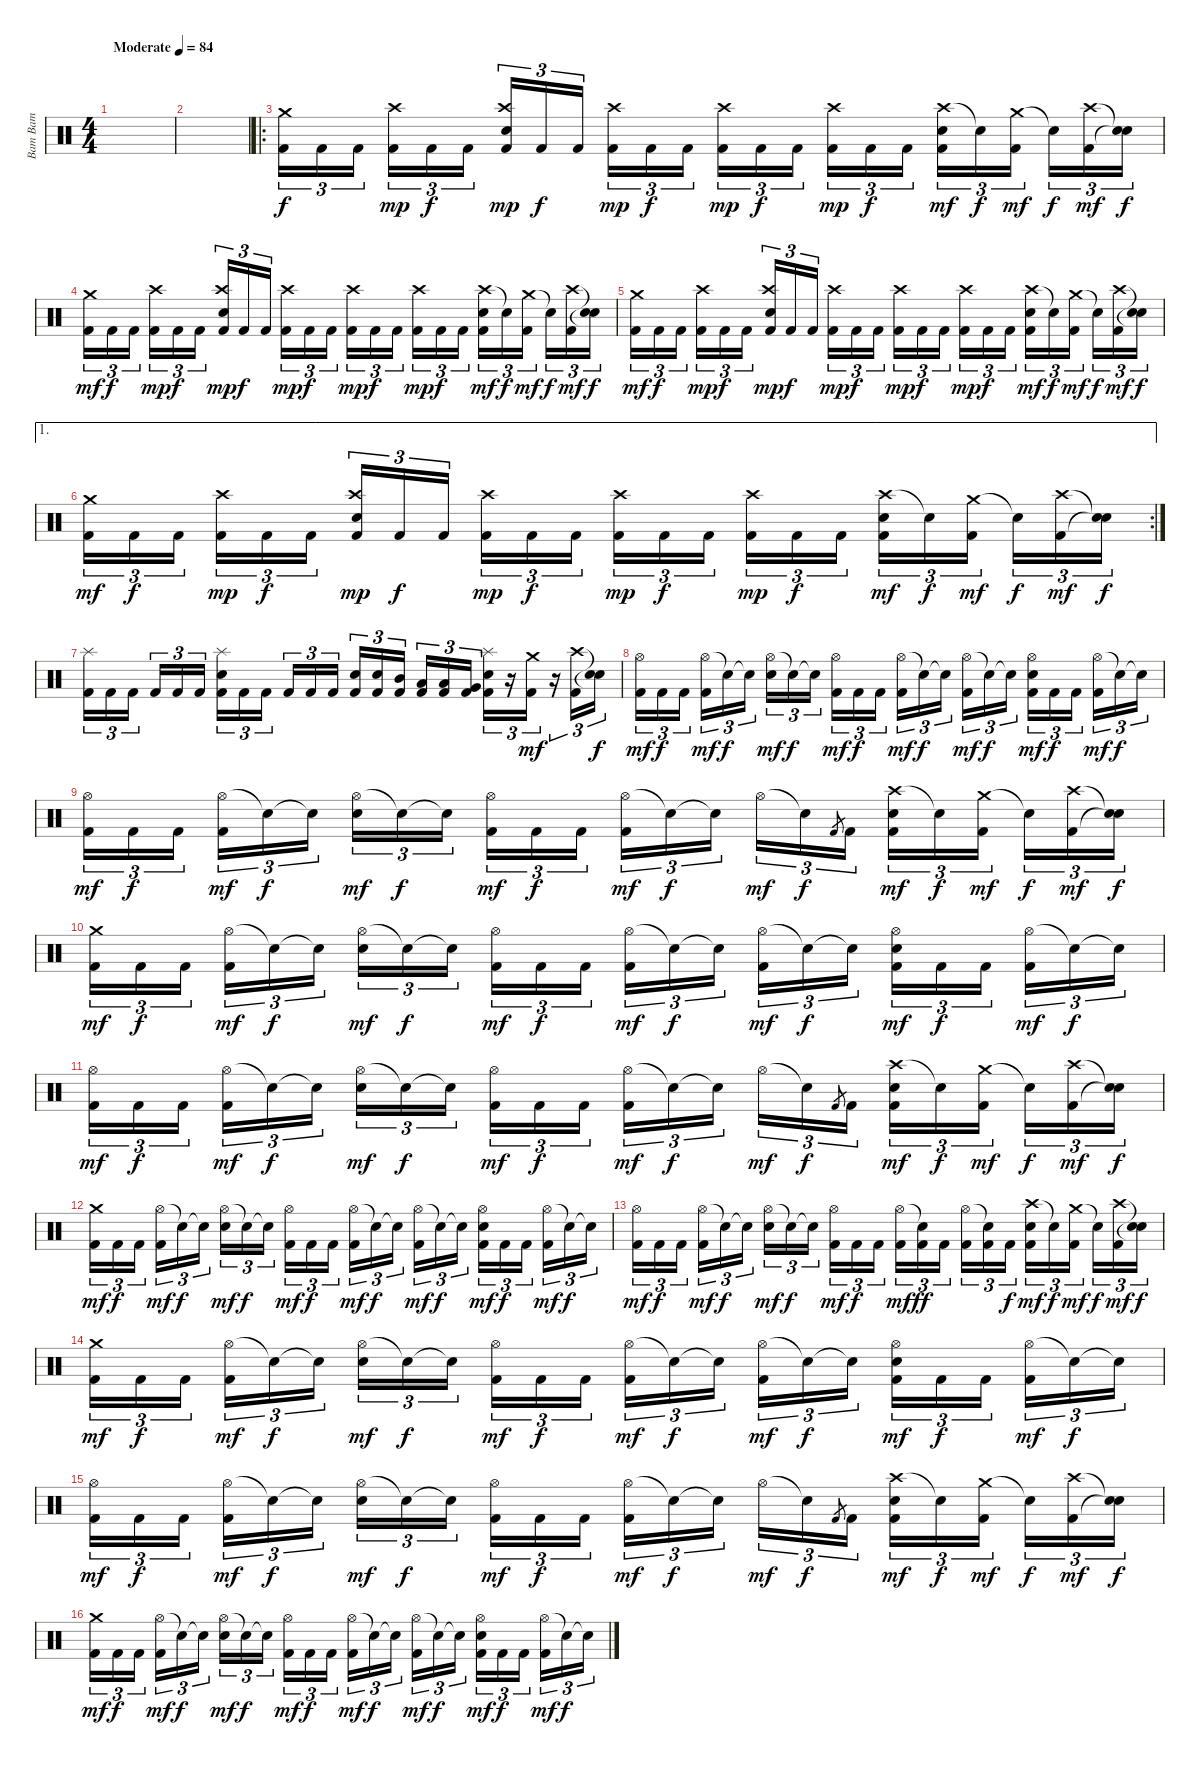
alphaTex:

\track ("Bam Bam" "Bam Bam") {instrument percussion}
\staff {score}
\articulation defaults
\ts (4 4)
\tempo (84 "Moderate")
\clef neutral
\ks c
|
|
\ro
("Crash medium (hit)" "Kick (hit) 2").16{tu (3 2)} "Kick (hit) 2".16{tu (3 2) dy f} "Kick (hit) 2".16{tu (3 2) beam splitsecondary} ("Crash high (hit)" "Kick (hit) 2").16{tu (3 2) dy mp} "Kick (hit) 2".16{tu (3 2) dy f} "Kick (hit) 2".16{tu (3 2)} ("Crash high (hit)" "Electric Snare (hit)" "Kick (hit) 2").16{tu (3 2) dy mp} "Kick (hit) 2".16{tu (3 2) dy f} "Kick (hit) 2".16{tu (3 2) beam splitsecondary} ("Crash high (hit)" "Kick (hit) 2").16{tu (3 2) dy mp} "Kick (hit) 2".16{tu (3 2) dy f} "Kick (hit) 2".16{tu (3 2)} ("Crash high (hit)" "Kick (hit) 2").16{tu (3 2) dy mp} "Kick (hit) 2".16{tu (3 2) dy f} "Kick (hit) 2".16{tu (3 2) beam splitsecondary} ("Crash high (hit)" "Kick (hit) 2").16{tu (3 2) dy mp} "Kick (hit) 2".16{tu (3 2) dy f} "Kick (hit) 2".16{tu (3 2)} ("Crash high (hit)" "Electric Snare (hit)" "Kick (hit) 2").16{tu (3 2) dy mf} "Snare (hit)"{t}.16{tu (3 2) dy f} ("Crash medium (hit)" "Kick (hit) 2").16{tu (3 2) dy mf beam splitsecondary} "Snare (hit)"{t}.16{tu (3 2) dy f} ("Crash high (hit)" "Kick (hit) 2").16{tu (3 2) dy mf} ("Snare (hit)"{t} "Snare (hit)"{t}).16{tu (3 2) dy f} |
("Crash medium (hit)" "Kick (hit) 2").16{tu (3 2) dy mf} "Kick (hit) 2".16{tu (3 2) dy f} "Kick (hit) 2".16{tu (3 2) beam splitsecondary} ("Crash high (hit)" "Kick (hit) 2").16{tu (3 2) dy mp} "Kick (hit) 2".16{tu (3 2) dy f} "Kick (hit) 2".16{tu (3 2)} ("Crash high (hit)" "Electric Snare (hit)" "Kick (hit) 2").16{tu (3 2) dy mp} "Kick (hit) 2".16{tu (3 2) dy f} "Kick (hit) 2".16{tu (3 2) beam splitsecondary} ("Crash high (hit)" "Kick (hit) 2").16{tu (3 2) dy mp} "Kick (hit) 2".16{tu (3 2) dy f} "Kick (hit) 2".16{tu (3 2)} ("Crash high (hit)" "Kick (hit) 2").16{tu (3 2) dy mp} "Kick (hit) 2".16{tu (3 2) dy f} "Kick (hit) 2".16{tu (3 2) beam splitsecondary} ("Crash high (hit)" "Kick (hit) 2").16{tu (3 2) dy mp} "Kick (hit) 2".16{tu (3 2) dy f} "Kick (hit) 2".16{tu (3 2)} ("Crash high (hit)" "Electric Snare (hit)" "Kick (hit) 2").16{tu (3 2) dy mf} "Snare (hit)"{t}.16{tu (3 2) dy f} ("Crash medium (hit)" "Kick (hit) 2").16{tu (3 2) dy mf beam splitsecondary} "Snare (hit)"{t}.16{tu (3 2) dy f} ("Crash high (hit)" "Kick (hit) 2").16{tu (3 2) dy mf} ("Snare (hit)"{t} "Snare (hit)"{t}).16{tu (3 2) dy f} |
("Crash medium (hit)" "Kick (hit) 2").16{tu (3 2) dy mf} "Kick (hit) 2".16{tu (3 2) dy f} "Kick (hit) 2".16{tu (3 2) beam splitsecondary} ("Crash high (hit)" "Kick (hit) 2").16{tu (3 2) dy mp} "Kick (hit) 2".16{tu (3 2) dy f} "Kick (hit) 2".16{tu (3 2)} ("Crash high (hit)" "Electric Snare (hit)" "Kick (hit) 2").16{tu (3 2) dy mp} "Kick (hit) 2".16{tu (3 2) dy f} "Kick (hit) 2".16{tu (3 2) beam splitsecondary} ("Crash high (hit)" "Kick (hit) 2").16{tu (3 2) dy mp} "Kick (hit) 2".16{tu (3 2) dy f} "Kick (hit) 2".16{tu (3 2)} ("Crash high (hit)" "Kick (hit) 2").16{tu (3 2) dy mp} "Kick (hit) 2".16{tu (3 2) dy f} "Kick (hit) 2".16{tu (3 2) beam splitsecondary} ("Crash high (hit)" "Kick (hit) 2").16{tu (3 2) dy mp} "Kick (hit) 2".16{tu (3 2) dy f} "Kick (hit) 2".16{tu (3 2)} ("Crash high (hit)" "Electric Snare (hit)" "Kick (hit) 2").16{tu (3 2) dy mf} "Snare (hit)"{t}.16{tu (3 2) dy f} ("Crash medium (hit)" "Kick (hit) 2").16{tu (3 2) dy mf beam splitsecondary} "Snare (hit)"{t}.16{tu (3 2) dy f} ("Crash high (hit)" "Kick (hit) 2").16{tu (3 2) dy mf} ("Snare (hit)"{t} "Snare (hit)"{t}).16{tu (3 2) dy f} |
\ae 1
\rc 2
("Crash medium (hit)" "Kick (hit) 2").16{tu (3 2) dy mf} "Kick (hit) 2".16{tu (3 2) dy f} "Kick (hit) 2".16{tu (3 2) beam splitsecondary} ("Crash high (hit)" "Kick (hit) 2").16{tu (3 2) dy mp} "Kick (hit) 2".16{tu (3 2) dy f} "Kick (hit) 2".16{tu (3 2)} ("Crash high (hit)" "Electric Snare (hit)" "Kick (hit) 2").16{tu (3 2) dy mp} "Kick (hit) 2".16{tu (3 2) dy f} "Kick (hit) 2".16{tu (3 2) beam splitsecondary} ("Crash high (hit)" "Kick (hit) 2").16{tu (3 2) dy mp} "Kick (hit) 2".16{tu (3 2) dy f} "Kick (hit) 2".16{tu (3 2)} ("Crash high (hit)" "Kick (hit) 2").16{tu (3 2) dy mp} "Kick (hit) 2".16{tu (3 2) dy f} "Kick (hit) 2".16{tu (3 2) beam splitsecondary} ("Crash high (hit)" "Kick (hit) 2").16{tu (3 2) dy mp} "Kick (hit) 2".16{tu (3 2) dy f} "Kick (hit) 2".16{tu (3 2)} ("Crash high (hit)" "Electric Snare (hit)" "Kick (hit) 2").16{tu (3 2) dy mf} "Snare (hit)"{t}.16{tu (3 2) dy f} ("Crash medium (hit)" "Kick (hit) 2").16{tu (3 2) dy mf beam splitsecondary} "Snare (hit)"{t}.16{tu (3 2) dy f} ("Crash high (hit)" "Kick (hit) 2").16{tu (3 2) dy mf} ("Snare (hit)"{t} "Snare (hit)"{t}).16{tu (3 2) dy f} |
("Splash (hit)" "Kick (hit) 2").16{tu (3 2)} "Kick (hit) 2".16{tu (3 2)} "Kick (hit) 2".16{tu (3 2) beam splitsecondary} "Kick (hit) 2".16{tu (3 2)} "Kick (hit) 2".16{tu (3 2)} "Kick (hit) 2".16{tu (3 2)} ("Splash (hit)" "Electric Snare (hit)" "Kick (hit) 2").16{tu (3 2)} "Kick (hit) 2".16{tu (3 2)} "Kick (hit) 2".16{tu (3 2) beam splitsecondary} "Kick (hit) 2".16{tu (3 2)} "Kick (hit) 2".16{tu (3 2)} "Kick (hit) 2".16{tu (3 2)} ("Electric Snare (hit)" "Kick (hit) 2").16{tu (3 2)} ("Electric Snare (hit)" "Kick (hit) 2").16{tu (3 2)} ("Mid Tom (hit)" "Kick (hit) 2").16{tu (3 2) beam splitsecondary} ("Low Tom (hit)" "Kick (hit) 2").16{tu (3 2)} ("Low Tom (hit)" "Kick (hit) 2").16{tu (3 2)} ("Very Low Tom (hit)" "Kick (hit) 2").16{tu (3 2)} ("Splash (hit)" "Electric Snare (hit)" "Kick (hit) 2").16{tu (3 2)} r.16{tu (3 2)} ("Crash medium (hit)" "Kick (hit) 2").16{tu (3 2) dy mf} r.16{tu (3 2)} ("Crash high (hit)" "Kick (hit) 2").16{tu (3 2)} ("Snare (hit)"{t} "Snare (hit)"{t}).16{tu (3 2) dy f} |
("Hi-Hat (open)" "Kick (hit) 2").16{tu (3 2) dy mf} "Kick (hit) 2".16{tu (3 2) dy f} "Kick (hit) 2".16{tu (3 2) beam splitsecondary} ("Hi-Hat (open)" "Kick (hit) 2").16{tu (3 2) dy mf} "Snare (hit)"{t}.16{tu (3 2) dy f} "Snare (hit)"{t}.16{tu (3 2)} ("Hi-Hat (open)" "Electric Snare (hit)").16{tu (3 2) dy mf} "Snare (hit)"{t}.16{tu (3 2) dy f} "Snare (hit)"{t}.16{tu (3 2) beam splitsecondary} ("Hi-Hat (open)" "Kick (hit) 2").16{tu (3 2) dy mf} "Kick (hit) 2".16{tu (3 2) dy f} "Kick (hit) 2".16{tu (3 2)} ("Hi-Hat (open)" "Kick (hit) 2").16{tu (3 2) dy mf} "Snare (hit)"{t}.16{tu (3 2) dy f} "Snare (hit)"{t}.16{tu (3 2) beam splitsecondary} ("Hi-Hat (open)" "Kick (hit) 2").16{tu (3 2) dy mf} "Snare (hit)"{t}.16{tu (3 2) dy f} "Snare (hit)"{t}.16{tu (3 2)} ("Hi-Hat (open)" "Electric Snare (hit)" "Kick (hit) 2").16{tu (3 2) dy mf} "Kick (hit) 2".16{tu (3 2) dy f} "Kick (hit) 2".16{tu (3 2) beam splitsecondary} ("Hi-Hat (open)" "Kick (hit) 2").16{tu (3 2) dy mf} "Snare (hit)"{t}.16{tu (3 2) dy f} "Snare (hit)"{t}.16{tu (3 2)} |
("Hi-Hat (open)" "Kick (hit) 2").16{tu (3 2) dy mf} "Kick (hit) 2".16{tu (3 2) dy f} "Kick (hit) 2".16{tu (3 2) beam splitsecondary} ("Hi-Hat (open)" "Kick (hit) 2").16{tu (3 2) dy mf} "Snare (hit)"{t}.16{tu (3 2) dy f} "Snare (hit)"{t}.16{tu (3 2)} ("Hi-Hat (open)" "Electric Snare (hit)").16{tu (3 2) dy mf} "Snare (hit)"{t}.16{tu (3 2) dy f} "Snare (hit)"{t}.16{tu (3 2) beam splitsecondary} ("Hi-Hat (open)" "Kick (hit) 2").16{tu (3 2) dy mf} "Kick (hit) 2".16{tu (3 2) dy f} "Kick (hit) 2".16{tu (3 2)} ("Hi-Hat (open)" "Kick (hit) 2").16{tu (3 2) dy mf} "Snare (hit)"{t}.16{tu (3 2) dy f} "Snare (hit)"{t}.16{tu (3 2) beam splitsecondary} "Hi-Hat (open)".16{tu (3 2) dy mf} "Snare (hit)"{t}.16{tu (3 2) dy f} "Kick (hit) 2".8{gr} "Kick (hit) 2".16{tu (3 2)} ("Crash high (hit)" "Electric Snare (hit)" "Kick (hit) 2").16{tu (3 2) dy mf} "Snare (hit)"{t}.16{tu (3 2) dy f} ("Crash medium (hit)" "Kick (hit) 2").16{tu (3 2) dy mf beam splitsecondary} "Snare (hit)"{t}.16{tu (3 2) dy f} ("Crash high (hit)" "Kick (hit) 2").16{tu (3 2) dy mf} ("Snare (hit)"{t} "Snare (hit)"{t}).16{tu (3 2) dy f} |
("Crash medium (hit)" "Kick (hit) 2").16{tu (3 2) dy mf} "Kick (hit) 2".16{tu (3 2) dy f} "Kick (hit) 2".16{tu (3 2) beam splitsecondary} ("Hi-Hat (open)" "Kick (hit) 2").16{tu (3 2) dy mf} "Snare (hit)"{t}.16{tu (3 2) dy f} "Snare (hit)"{t}.16{tu (3 2)} ("Hi-Hat (open)" "Electric Snare (hit)").16{tu (3 2) dy mf} "Snare (hit)"{t}.16{tu (3 2) dy f} "Snare (hit)"{t}.16{tu (3 2) beam splitsecondary} ("Hi-Hat (open)" "Kick (hit) 2").16{tu (3 2) dy mf} "Kick (hit) 2".16{tu (3 2) dy f} "Kick (hit) 2".16{tu (3 2)} ("Hi-Hat (open)" "Kick (hit) 2").16{tu (3 2) dy mf} "Snare (hit)"{t}.16{tu (3 2) dy f} "Snare (hit)"{t}.16{tu (3 2) beam splitsecondary} ("Hi-Hat (open)" "Kick (hit) 2").16{tu (3 2) dy mf} "Snare (hit)"{t}.16{tu (3 2) dy f} "Snare (hit)"{t}.16{tu (3 2)} ("Hi-Hat (open)" "Electric Snare (hit)" "Kick (hit) 2").16{tu (3 2) dy mf} "Kick (hit) 2".16{tu (3 2) dy f} "Kick (hit) 2".16{tu (3 2) beam splitsecondary} ("Hi-Hat (open)" "Kick (hit) 2").16{tu (3 2) dy mf} "Snare (hit)"{t}.16{tu (3 2) dy f} "Snare (hit)"{t}.16{tu (3 2)} |
("Hi-Hat (open)" "Kick (hit) 2").16{tu (3 2) dy mf} "Kick (hit) 2".16{tu (3 2) dy f} "Kick (hit) 2".16{tu (3 2) beam splitsecondary} ("Hi-Hat (open)" "Kick (hit) 2").16{tu (3 2) dy mf} "Snare (hit)"{t}.16{tu (3 2) dy f} "Snare (hit)"{t}.16{tu (3 2)} ("Hi-Hat (open)" "Electric Snare (hit)").16{tu (3 2) dy mf} "Snare (hit)"{t}.16{tu (3 2) dy f} "Snare (hit)"{t}.16{tu (3 2) beam splitsecondary} ("Hi-Hat (open)" "Kick (hit) 2").16{tu (3 2) dy mf} "Kick (hit) 2".16{tu (3 2) dy f} "Kick (hit) 2".16{tu (3 2)} ("Hi-Hat (open)" "Kick (hit) 2").16{tu (3 2) dy mf} "Snare (hit)"{t}.16{tu (3 2) dy f} "Snare (hit)"{t}.16{tu (3 2) beam splitsecondary} "Hi-Hat (open)".16{tu (3 2) dy mf} "Snare (hit)"{t}.16{tu (3 2) dy f} "Kick (hit) 2".8{gr} "Kick (hit) 2".16{tu (3 2)} ("Crash high (hit)" "Electric Snare (hit)" "Kick (hit) 2").16{tu (3 2) dy mf} "Snare (hit)"{t}.16{tu (3 2) dy f} ("Crash medium (hit)" "Kick (hit) 2").16{tu (3 2) dy mf beam splitsecondary} "Snare (hit)"{t}.16{tu (3 2) dy f} ("Crash high (hit)" "Kick (hit) 2").16{tu (3 2) dy mf} ("Snare (hit)"{t} "Snare (hit)"{t}).16{tu (3 2) dy f} |
("Crash medium (hit)" "Kick (hit) 2").16{tu (3 2) dy mf} "Kick (hit) 2".16{tu (3 2) dy f} "Kick (hit) 2".16{tu (3 2) beam splitsecondary} ("Hi-Hat (open)" "Kick (hit) 2").16{tu (3 2) dy mf} "Snare (hit)"{t}.16{tu (3 2) dy f} "Snare (hit)"{t}.16{tu (3 2)} ("Hi-Hat (open)" "Electric Snare (hit)").16{tu (3 2) dy mf} "Snare (hit)"{t}.16{tu (3 2) dy f} "Snare (hit)"{t}.16{tu (3 2) beam splitsecondary} ("Hi-Hat (open)" "Kick (hit) 2").16{tu (3 2) dy mf} "Kick (hit) 2".16{tu (3 2) dy f} "Kick (hit) 2".16{tu (3 2)} ("Hi-Hat (open)" "Kick (hit) 2").16{tu (3 2) dy mf} "Snare (hit)"{t}.16{tu (3 2) dy f} "Snare (hit)"{t}.16{tu (3 2) beam splitsecondary} ("Hi-Hat (open)" "Kick (hit) 2").16{tu (3 2) dy mf} "Snare (hit)"{t}.16{tu (3 2) dy f} "Snare (hit)"{t}.16{tu (3 2)} ("Hi-Hat (open)" "Electric Snare (hit)" "Kick (hit) 2").16{tu (3 2) dy mf} "Kick (hit) 2".16{tu (3 2) dy f} "Kick (hit) 2".16{tu (3 2) beam splitsecondary} ("Hi-Hat (open)" "Kick (hit) 2").16{tu (3 2) dy mf} "Snare (hit)"{t}.16{tu (3 2) dy f} "Snare (hit)"{t}.16{tu (3 2)} |
("Hi-Hat (open)" "Kick (hit) 2").16{tu (3 2) dy mf} "Kick (hit) 2".16{tu (3 2) dy f} "Kick (hit) 2".16{tu (3 2) beam splitsecondary} ("Hi-Hat (open)" "Kick (hit) 2").16{tu (3 2) dy mf} "Snare (hit)"{t}.16{tu (3 2) dy f} "Snare (hit)"{t}.16{tu (3 2)} ("Hi-Hat (open)" "Electric Snare (hit)").16{tu (3 2) dy mf} "Snare (hit)"{t}.16{tu (3 2) dy f} "Snare (hit)"{t}.16{tu (3 2) beam splitsecondary} ("Hi-Hat (open)" "Kick (hit) 2").16{tu (3 2) dy mf} "Kick (hit) 2".16{tu (3 2) dy f} "Kick (hit) 2".16{tu (3 2)} ("Hi-Hat (open)" "Kick (hit) 2").16{tu (3 2) dy mf} ("Snare (hit)"{t} "Kick (hit) 2").16{tu (3 2) dy ff} "Kick (hit) 2".16{tu (3 2) beam splitsecondary} ("Hi-Hat (open)" "Kick (hit) 2").16{tu (3 2)} ("Snare (hit)"{t} "Kick (hit) 2").16{tu (3 2)} "Kick (hit) 2".16{tu (3 2) dy f} ("Crash high (hit)" "Electric Snare (hit)" "Kick (hit) 2").16{tu (3 2) dy mf} "Snare (hit)"{t}.16{tu (3 2) dy f} ("Crash medium (hit)" "Kick (hit) 2").16{tu (3 2) dy mf beam splitsecondary} "Snare (hit)"{t}.16{tu (3 2) dy f} ("Crash high (hit)" "Kick (hit) 2").16{tu (3 2) dy mf} ("Snare (hit)"{t} "Snare (hit)"{t}).16{tu (3 2) dy f} |
("Crash medium (hit)" "Kick (hit) 2").16{tu (3 2) dy mf} "Kick (hit) 2".16{tu (3 2) dy f} "Kick (hit) 2".16{tu (3 2) beam splitsecondary} ("Hi-Hat (open)" "Kick (hit) 2").16{tu (3 2) dy mf} "Snare (hit)"{t}.16{tu (3 2) dy f} "Snare (hit)"{t}.16{tu (3 2)} ("Hi-Hat (open)" "Electric Snare (hit)").16{tu (3 2) dy mf} "Snare (hit)"{t}.16{tu (3 2) dy f} "Snare (hit)"{t}.16{tu (3 2) beam splitsecondary} ("Hi-Hat (open)" "Kick (hit) 2").16{tu (3 2) dy mf} "Kick (hit) 2".16{tu (3 2) dy f} "Kick (hit) 2".16{tu (3 2)} ("Hi-Hat (open)" "Kick (hit) 2").16{tu (3 2) dy mf} "Snare (hit)"{t}.16{tu (3 2) dy f} "Snare (hit)"{t}.16{tu (3 2) beam splitsecondary} ("Hi-Hat (open)" "Kick (hit) 2").16{tu (3 2) dy mf} "Snare (hit)"{t}.16{tu (3 2) dy f} "Snare (hit)"{t}.16{tu (3 2)} ("Hi-Hat (open)" "Electric Snare (hit)" "Kick (hit) 2").16{tu (3 2) dy mf} "Kick (hit) 2".16{tu (3 2) dy f} "Kick (hit) 2".16{tu (3 2) beam splitsecondary} ("Hi-Hat (open)" "Kick (hit) 2").16{tu (3 2) dy mf} "Snare (hit)"{t}.16{tu (3 2) dy f} "Snare (hit)"{t}.16{tu (3 2)} |
("Hi-Hat (open)" "Kick (hit) 2").16{tu (3 2) dy mf} "Kick (hit) 2".16{tu (3 2) dy f} "Kick (hit) 2".16{tu (3 2) beam splitsecondary} ("Hi-Hat (open)" "Kick (hit) 2").16{tu (3 2) dy mf} "Snare (hit)"{t}.16{tu (3 2) dy f} "Snare (hit)"{t}.16{tu (3 2)} ("Hi-Hat (open)" "Electric Snare (hit)").16{tu (3 2) dy mf} "Snare (hit)"{t}.16{tu (3 2) dy f} "Snare (hit)"{t}.16{tu (3 2) beam splitsecondary} ("Hi-Hat (open)" "Kick (hit) 2").16{tu (3 2) dy mf} "Kick (hit) 2".16{tu (3 2) dy f} "Kick (hit) 2".16{tu (3 2)} ("Hi-Hat (open)" "Kick (hit) 2").16{tu (3 2) dy mf} "Snare (hit)"{t}.16{tu (3 2) dy f} "Snare (hit)"{t}.16{tu (3 2) beam splitsecondary} "Hi-Hat (open)".16{tu (3 2) dy mf} "Snare (hit)"{t}.16{tu (3 2) dy f} "Kick (hit) 2".8{gr} "Kick (hit) 2".16{tu (3 2)} ("Crash high (hit)" "Electric Snare (hit)" "Kick (hit) 2").16{tu (3 2) dy mf} "Snare (hit)"{t}.16{tu (3 2) dy f} ("Crash medium (hit)" "Kick (hit) 2").16{tu (3 2) dy mf beam splitsecondary} "Snare (hit)"{t}.16{tu (3 2) dy f} ("Crash high (hit)" "Kick (hit) 2").16{tu (3 2) dy mf} ("Snare (hit)"{t} "Snare (hit)"{t}).16{tu (3 2) dy f} |
("Crash medium (hit)" "Kick (hit) 2").16{tu (3 2) dy mf} "Kick (hit) 2".16{tu (3 2) dy f} "Kick (hit) 2".16{tu (3 2) beam splitsecondary} ("Hi-Hat (open)" "Kick (hit) 2").16{tu (3 2) dy mf} "Snare (hit)"{t}.16{tu (3 2) dy f} "Snare (hit)"{t}.16{tu (3 2)} ("Hi-Hat (open)" "Electric Snare (hit)").16{tu (3 2) dy mf} "Snare (hit)"{t}.16{tu (3 2) dy f} "Snare (hit)"{t}.16{tu (3 2) beam splitsecondary} ("Hi-Hat (open)" "Kick (hit) 2").16{tu (3 2) dy mf} "Kick (hit) 2".16{tu (3 2) dy f} "Kick (hit) 2".16{tu (3 2)} ("Hi-Hat (open)" "Kick (hit) 2").16{tu (3 2) dy mf} "Snare (hit)"{t}.16{tu (3 2) dy f} "Snare (hit)"{t}.16{tu (3 2) beam splitsecondary} ("Hi-Hat (open)" "Kick (hit) 2").16{tu (3 2) dy mf} "Snare (hit)"{t}.16{tu (3 2) dy f} "Snare (hit)"{t}.16{tu (3 2)} ("Hi-Hat (open)" "Electric Snare (hit)" "Kick (hit) 2").16{tu (3 2) dy mf} "Kick (hit) 2".16{tu (3 2) dy f} "Kick (hit) 2".16{tu (3 2) beam splitsecondary} ("Hi-Hat (open)" "Kick (hit) 2").16{tu (3 2) dy mf} "Snare (hit)"{t}.16{tu (3 2) dy f} "Snare (hit)"{t}.16{tu (3 2)}
